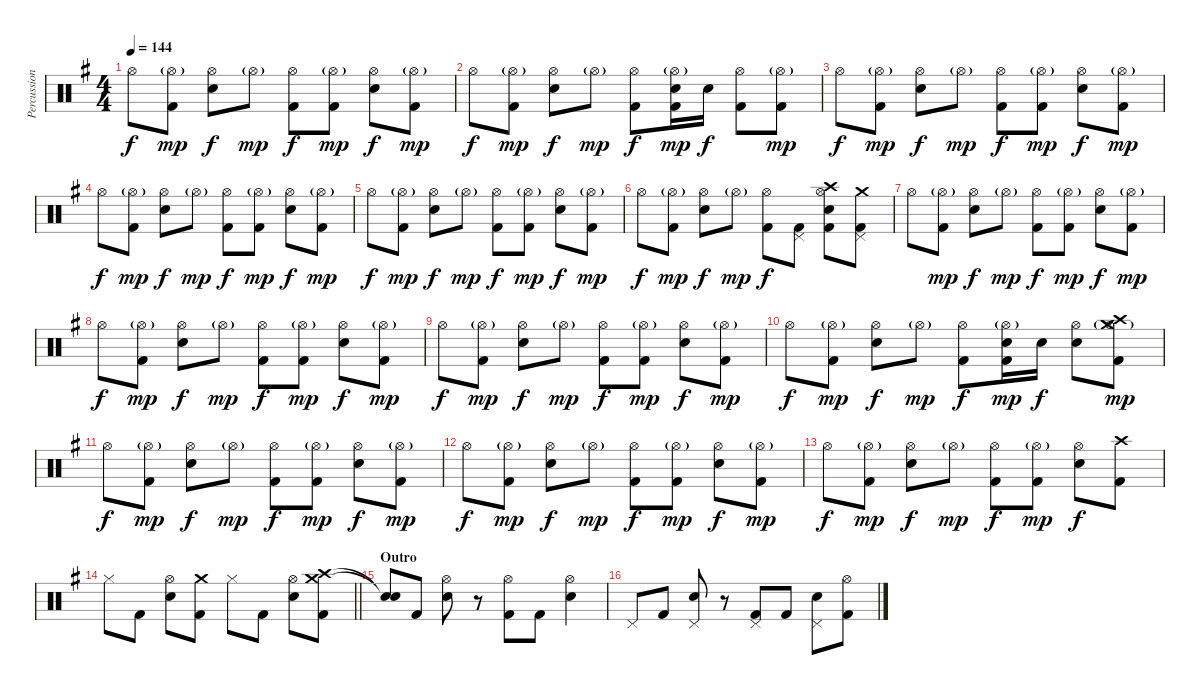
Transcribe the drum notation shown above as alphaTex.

\track ("Percussion" "Percussion") {instrument percussion}
\staff {score}
\articulation defaults
\ts (4 4)
\tempo 144
\clef neutral
\ks g "Hi-Hat (open)".8{dy f}
("Hi-Hat (open)"{g} "Kick (hit) 2").8{dy mp} ("Hi-Hat (open)" "Electric Snare (hit)").8{dy f} "Hi-Hat (open)"{g}.8{dy mp} ("Hi-Hat (open)" "Kick (hit) 2").8{dy f} ("Hi-Hat (open)"{g} "Kick (hit) 2").8{dy mp} ("Hi-Hat (open)" "Electric Snare (hit)").8{dy f} ("Hi-Hat (open)"{g} "Kick (hit) 2").8{dy mp} |
"Hi-Hat (open)".8{dy f} ("Hi-Hat (open)"{g} "Kick (hit) 2").8{dy mp} ("Hi-Hat (open)" "Electric Snare (hit)").8{dy f} "Hi-Hat (open)"{g}.8{dy mp} ("Hi-Hat (open)" "Kick (hit) 2").8{dy f} ("Hi-Hat (open)"{g} "Electric Snare (hit)" "Kick (hit) 2").16{dy mp} "Electric Snare (hit)".16{dy f} ("Hi-Hat (open)" "Kick (hit) 2").8 ("Hi-Hat (open)"{g} "Kick (hit) 2").8{dy mp} |
"Hi-Hat (open)".8{dy f} ("Hi-Hat (open)"{g} "Kick (hit) 2").8{dy mp} ("Hi-Hat (open)" "Electric Snare (hit)").8{dy f} "Hi-Hat (open)"{g}.8{dy mp} ("Hi-Hat (open)" "Kick (hit) 2").8{dy f} ("Hi-Hat (open)"{g} "Kick (hit) 2").8{dy mp} ("Hi-Hat (open)" "Electric Snare (hit)").8{dy f} ("Hi-Hat (open)"{g} "Kick (hit) 2").8{dy mp} |
"Hi-Hat (open)".8{dy f} ("Hi-Hat (open)"{g} "Kick (hit) 2").8{dy mp} ("Hi-Hat (open)" "Electric Snare (hit)").8{dy f} "Hi-Hat (open)"{g}.8{dy mp} ("Hi-Hat (open)" "Kick (hit) 2").8{dy f} ("Hi-Hat (open)"{g} "Kick (hit) 2").8{dy mp} ("Hi-Hat (open)" "Electric Snare (hit)").8{dy f} ("Hi-Hat (open)"{g} "Kick (hit) 2").8{dy mp} |
"Hi-Hat (open)".8{dy f} ("Hi-Hat (open)"{g} "Kick (hit) 2").8{dy mp} ("Hi-Hat (open)" "Electric Snare (hit)").8{dy f} "Hi-Hat (open)"{g}.8{dy mp} ("Hi-Hat (open)" "Kick (hit) 2").8{dy f} ("Hi-Hat (open)"{g} "Kick (hit) 2").8{dy mp} ("Hi-Hat (open)" "Electric Snare (hit)").8{dy f} ("Hi-Hat (open)"{g} "Kick (hit) 2").8{dy mp} |
"Hi-Hat (open)".8{dy f} ("Hi-Hat (open)"{g} "Kick (hit) 2").8{dy mp} ("Hi-Hat (open)" "Electric Snare (hit)").8{dy f} "Hi-Hat (open)"{g}.8{dy mp} ("Hi-Hat (open)" "Kick (hit) 2").8{dy f} ("Pedal Hi-Hat (hit)" "Kick (hit) 2").8 ("Crash high (hit)" "Hi-Hat (open)" "Electric Snare (hit)" "Kick (hit) 2").8 ("Crash medium (hit)" "Pedal Hi-Hat (hit)" "Kick (hit) 2").8 |
"Hi-Hat (open)".8 ("Hi-Hat (open)"{g} "Kick (hit) 2").8{dy mp} ("Hi-Hat (open)" "Electric Snare (hit)").8{dy f} "Hi-Hat (open)"{g}.8{dy mp} ("Hi-Hat (open)" "Kick (hit) 2").8{dy f} ("Hi-Hat (open)"{g} "Kick (hit) 2").8{dy mp} ("Hi-Hat (open)" "Electric Snare (hit)").8{dy f} ("Hi-Hat (open)"{g} "Kick (hit) 2").8{dy mp} |
"Hi-Hat (open)".8{dy f} ("Hi-Hat (open)"{g} "Kick (hit) 2").8{dy mp} ("Hi-Hat (open)" "Electric Snare (hit)").8{dy f} "Hi-Hat (open)"{g}.8{dy mp} ("Hi-Hat (open)" "Kick (hit) 2").8{dy f} ("Hi-Hat (open)"{g} "Kick (hit) 2").8{dy mp} ("Hi-Hat (open)" "Electric Snare (hit)").8{dy f} ("Hi-Hat (open)"{g} "Kick (hit) 2").8{dy mp} |
"Hi-Hat (open)".8{dy f} ("Hi-Hat (open)"{g} "Kick (hit) 2").8{dy mp} ("Hi-Hat (open)" "Electric Snare (hit)").8{dy f} "Hi-Hat (open)"{g}.8{dy mp} ("Hi-Hat (open)" "Kick (hit) 2").8{dy f} ("Hi-Hat (open)"{g} "Kick (hit) 2").8{dy mp} ("Hi-Hat (open)" "Electric Snare (hit)").8{dy f} ("Hi-Hat (open)"{g} "Kick (hit) 2").8{dy mp} |
"Hi-Hat (open)".8{dy f} ("Hi-Hat (open)"{g} "Kick (hit) 2").8{dy mp} ("Hi-Hat (open)" "Electric Snare (hit)").8{dy f} "Hi-Hat (open)"{g}.8{dy mp} ("Hi-Hat (open)" "Kick (hit) 2").8{dy f} ("Hi-Hat (open)"{g} "Electric Snare (hit)" "Kick (hit) 2").16{dy mp} "Electric Snare (hit)".16{dy f} ("Hi-Hat (open)" "Electric Snare (hit)").8 ("Crash high (hit)" "Crash medium (hit)" "Hi-Hat (open)"{g} "Kick (hit) 2").8{dy mp} |
"Hi-Hat (open)".8{dy f} ("Hi-Hat (open)"{g} "Kick (hit) 2").8{dy mp} ("Hi-Hat (open)" "Electric Snare (hit)").8{dy f} "Hi-Hat (open)"{g}.8{dy mp} ("Hi-Hat (open)" "Kick (hit) 2").8{dy f} ("Hi-Hat (open)"{g} "Kick (hit) 2").8{dy mp} ("Hi-Hat (open)" "Electric Snare (hit)").8{dy f} ("Hi-Hat (open)"{g} "Kick (hit) 2").8{dy mp} |
"Hi-Hat (open)".8{dy f} ("Hi-Hat (open)"{g} "Kick (hit) 2").8{dy mp} ("Hi-Hat (open)" "Electric Snare (hit)").8{dy f} "Hi-Hat (open)"{g}.8{dy mp} ("Hi-Hat (open)" "Kick (hit) 2").8{dy f} ("Hi-Hat (open)"{g} "Kick (hit) 2").8{dy mp} ("Hi-Hat (open)" "Electric Snare (hit)").8{dy f} ("Hi-Hat (open)"{g} "Kick (hit) 2").8{dy mp} |
"Hi-Hat (open)".8{dy f} ("Hi-Hat (open)"{g} "Kick (hit) 2").8{dy mp} ("Hi-Hat (open)" "Electric Snare (hit)").8{dy f} "Hi-Hat (open)"{g}.8{dy mp} ("Hi-Hat (open)" "Kick (hit) 2").8{dy f} ("Hi-Hat (open)"{g} "Kick (hit) 2").8{dy mp} ("Hi-Hat (open)" "Electric Snare (hit)").8{dy f} ("Crash high (hit)" "Kick (hit) 2").8 |
\barLineRight lightlight "Hi-Hat (closed)".8 "Kick (hit) 2".8
("Hi-Hat (open)" "Electric Snare (hit)").8 ("Crash medium (hit)" "Kick (hit) 2").8 "Hi-Hat (closed)".8 "Kick (hit) 2".8 ("Hi-Hat (open)" "Electric Snare (hit)").8 ("Crash medium (hit)" "Crash high (hit)" "Kick (hit) 2").8 |
\section ("" "Outro")
("Snare (hit)"{t} "Snare (hit)"{t}).8 "Kick (hit) 2".8 ("Electric Snare (hit)" "Hi-Hat (open)").8 r.8 ("Hi-Hat (open)" "Kick (hit) 2").8 "Kick (hit) 2".8 ("Electric Snare (hit)" "Hi-Hat (open)").4 |
"Pedal Hi-Hat (hit)".8 "Kick (hit) 2".8 ("Electric Snare (hit)" "Pedal Hi-Hat (hit)").8 r.8 ("Pedal Hi-Hat (hit)" "Kick (hit) 2").8 "Kick (hit) 2".8 ("Electric Snare (hit)" "Pedal Hi-Hat (hit)").8 ("Hi-Hat (open)" "Kick (hit) 2").8
